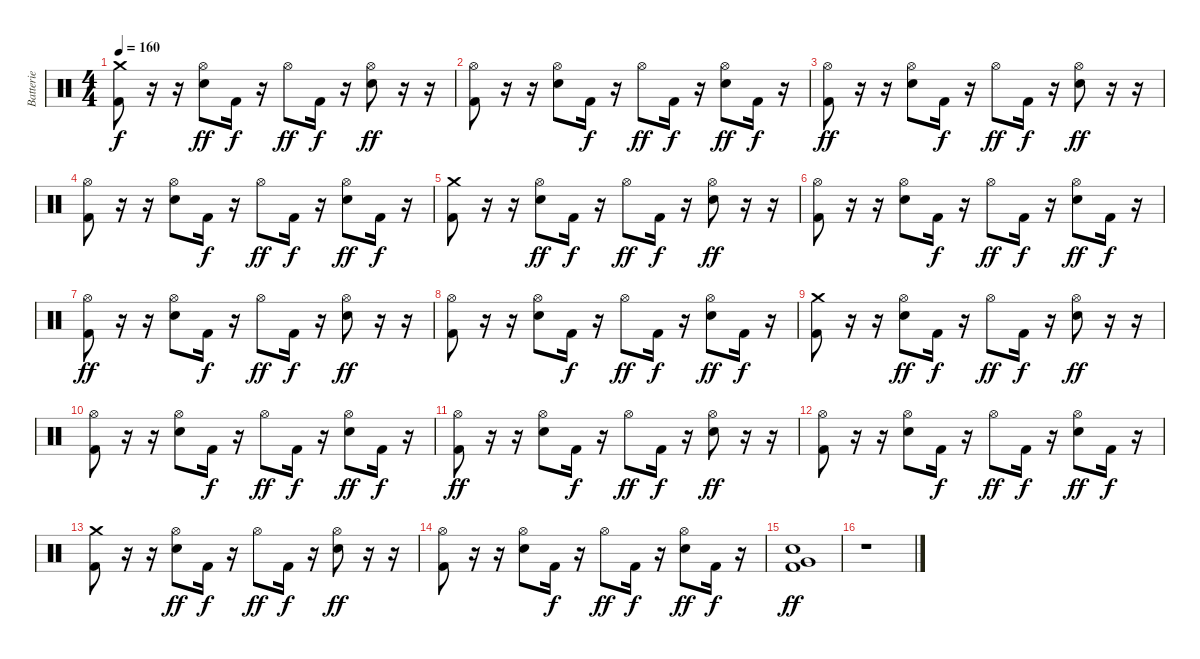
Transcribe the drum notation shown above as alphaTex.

\track ("Batterie" "Batterie") {instrument percussion}
\staff {score}
\articulation defaults
\ts (4 4)
\tempo 160
\clef neutral
\ks c
("Crash medium (hit)" "Kick (hit) 2").8{dy f} r.16 r.16 ("Hi-Hat (open)" "Snare (hit) 2").8{dy ff} "Kick (hit) 2".16{dy f} r.16 "Hi-Hat (open)".8{dy ff} "Kick (hit) 2".16{dy f} r.16 ("Hi-Hat (open)" "Snare (hit) 2").8{dy ff} r.16 r.16 |
("Hi-Hat (open)" "Kick (hit) 2").8 r.16 r.16 ("Hi-Hat (open)" "Snare (hit) 2").8 "Kick (hit) 2".16{dy f} r.16 "Hi-Hat (open)".8{dy ff} "Kick (hit) 2".16{dy f} r.16 ("Hi-Hat (open)" "Snare (hit) 2").8{dy ff} "Kick (hit) 2".16{dy f} r.16 |
("Hi-Hat (open)" "Kick (hit) 2").8{dy ff} r.16 r.16 ("Hi-Hat (open)" "Snare (hit) 2").8 "Kick (hit) 2".16{dy f} r.16 "Hi-Hat (open)".8{dy ff} "Kick (hit) 2".16{dy f} r.16 ("Hi-Hat (open)" "Snare (hit) 2").8{dy ff} r.16 r.16 |
("Hi-Hat (open)" "Kick (hit) 2").8 r.16 r.16 ("Hi-Hat (open)" "Snare (hit) 2").8 "Kick (hit) 2".16{dy f} r.16 "Hi-Hat (open)".8{dy ff} "Kick (hit) 2".16{dy f} r.16 ("Hi-Hat (open)" "Snare (hit) 2").8{dy ff} "Kick (hit) 2".16{dy f} r.16 |
("Crash medium (hit)" "Kick (hit) 2").8 r.16 r.16 ("Hi-Hat (open)" "Snare (hit) 2").8{dy ff} "Kick (hit) 2".16{dy f} r.16 "Hi-Hat (open)".8{dy ff} "Kick (hit) 2".16{dy f} r.16 ("Hi-Hat (open)" "Snare (hit) 2").8{dy ff} r.16 r.16 |
("Hi-Hat (open)" "Kick (hit) 2").8 r.16 r.16 ("Hi-Hat (open)" "Snare (hit) 2").8 "Kick (hit) 2".16{dy f} r.16 "Hi-Hat (open)".8{dy ff} "Kick (hit) 2".16{dy f} r.16 ("Hi-Hat (open)" "Snare (hit) 2").8{dy ff} "Kick (hit) 2".16{dy f} r.16 |
("Hi-Hat (open)" "Kick (hit) 2").8{dy ff} r.16 r.16 ("Hi-Hat (open)" "Snare (hit) 2").8 "Kick (hit) 2".16{dy f} r.16 "Hi-Hat (open)".8{dy ff} "Kick (hit) 2".16{dy f} r.16 ("Hi-Hat (open)" "Snare (hit) 2").8{dy ff} r.16 r.16 |
("Hi-Hat (open)" "Kick (hit) 2").8 r.16 r.16 ("Hi-Hat (open)" "Snare (hit) 2").8 "Kick (hit) 2".16{dy f} r.16 "Hi-Hat (open)".8{dy ff} "Kick (hit) 2".16{dy f} r.16 ("Hi-Hat (open)" "Snare (hit) 2").8{dy ff} "Kick (hit) 2".16{dy f} r.16 |
("Crash medium (hit)" "Kick (hit) 2").8 r.16 r.16 ("Hi-Hat (open)" "Snare (hit) 2").8{dy ff} "Kick (hit) 2".16{dy f} r.16 "Hi-Hat (open)".8{dy ff} "Kick (hit) 2".16{dy f} r.16 ("Hi-Hat (open)" "Snare (hit) 2").8{dy ff} r.16 r.16 |
("Hi-Hat (open)" "Kick (hit) 2").8 r.16 r.16 ("Hi-Hat (open)" "Snare (hit) 2").8 "Kick (hit) 2".16{dy f} r.16 "Hi-Hat (open)".8{dy ff} "Kick (hit) 2".16{dy f} r.16 ("Hi-Hat (open)" "Snare (hit) 2").8{dy ff} "Kick (hit) 2".16{dy f} r.16 |
("Hi-Hat (open)" "Kick (hit) 2").8{dy ff} r.16 r.16 ("Hi-Hat (open)" "Snare (hit) 2").8 "Kick (hit) 2".16{dy f} r.16 "Hi-Hat (open)".8{dy ff} "Kick (hit) 2".16{dy f} r.16 ("Hi-Hat (open)" "Snare (hit) 2").8{dy ff} r.16 r.16 |
("Hi-Hat (open)" "Kick (hit) 2").8 r.16 r.16 ("Hi-Hat (open)" "Snare (hit) 2").8 "Kick (hit) 2".16{dy f} r.16 "Hi-Hat (open)".8{dy ff} "Kick (hit) 2".16{dy f} r.16 ("Hi-Hat (open)" "Snare (hit) 2").8{dy ff} "Kick (hit) 2".16{dy f} r.16 |
("Crash medium (hit)" "Kick (hit) 2").8 r.16 r.16 ("Hi-Hat (open)" "Snare (hit) 2").8{dy ff} "Kick (hit) 2".16{dy f} r.16 "Hi-Hat (open)".8{dy ff} "Kick (hit) 2".16{dy f} r.16 ("Hi-Hat (open)" "Snare (hit) 2").8{dy ff} r.16 r.16 |
("Hi-Hat (open)" "Kick (hit) 2").8 r.16 r.16 ("Hi-Hat (open)" "Snare (hit) 2").8 "Kick (hit) 2".16{dy f} r.16 "Hi-Hat (open)".8{dy ff} "Kick (hit) 2".16{dy f} r.16 ("Hi-Hat (open)" "Snare (hit) 2").8{dy ff} "Kick (hit) 2".16{dy f} r.16 |
("Snare (hit) 2" "Very Low Tom (hit)" "Kick (hit) 2").1{dy ff} |
r.1
